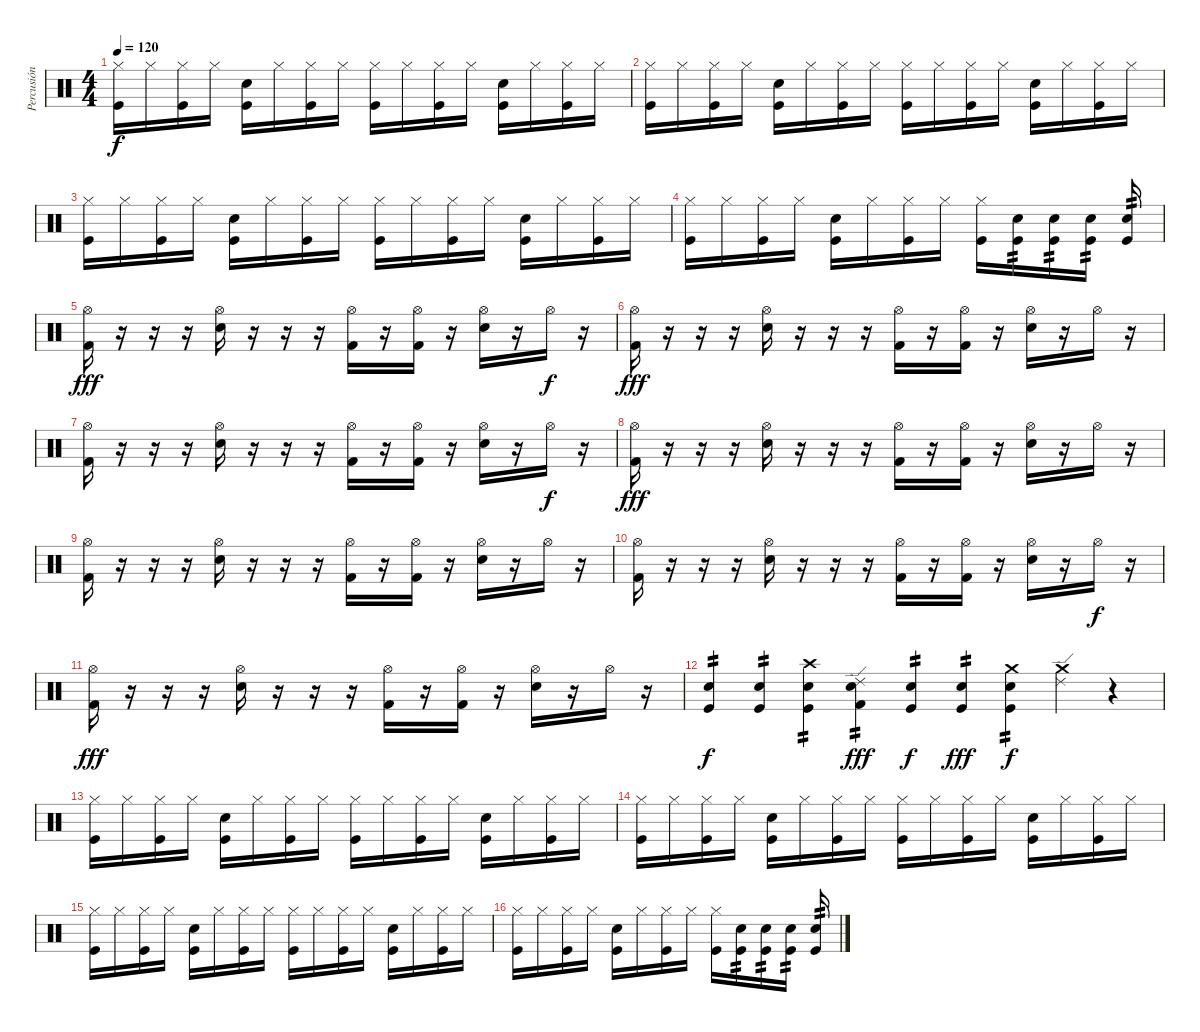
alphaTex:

\track ("Percusión" "Percusión") {instrument percussion}
\staff {score}
\articulation defaults
\ts (4 4)
\tempo 120
\clef neutral
\ks c
("Hi-Hat (closed)" "Kick (hit)").16{dy f} "Hi-Hat (closed)".16 ("Hi-Hat (closed)" "Kick (hit)").16 "Hi-Hat (closed)".16 ("Snare (hit) 2" "Kick (hit)").16 "Hi-Hat (closed)".16 ("Hi-Hat (closed)" "Kick (hit)").16 "Hi-Hat (closed)".16 ("Hi-Hat (closed)" "Kick (hit)").16 "Hi-Hat (closed)".16 ("Hi-Hat (closed)" "Kick (hit)").16 "Hi-Hat (closed)".16 ("Snare (hit) 2" "Kick (hit)").16 "Hi-Hat (closed)".16 ("Hi-Hat (closed)" "Kick (hit)").16 "Hi-Hat (closed)".16 |
("Hi-Hat (closed)" "Kick (hit)").16 "Hi-Hat (closed)".16 ("Hi-Hat (closed)" "Kick (hit)").16 "Hi-Hat (closed)".16 ("Snare (hit) 2" "Kick (hit)").16 "Hi-Hat (closed)".16 ("Hi-Hat (closed)" "Kick (hit)").16 "Hi-Hat (closed)".16 ("Hi-Hat (closed)" "Kick (hit)").16 "Hi-Hat (closed)".16 ("Hi-Hat (closed)" "Kick (hit)").16 "Hi-Hat (closed)".16 ("Snare (hit) 2" "Kick (hit)").16 "Hi-Hat (closed)".16 ("Hi-Hat (closed)" "Kick (hit)").16 "Hi-Hat (closed)".16 |
("Hi-Hat (closed)" "Kick (hit)").16 "Hi-Hat (closed)".16 ("Hi-Hat (closed)" "Kick (hit)").16 "Hi-Hat (closed)".16 ("Snare (hit) 2" "Kick (hit)").16 "Hi-Hat (closed)".16 ("Hi-Hat (closed)" "Kick (hit)").16 "Hi-Hat (closed)".16 ("Hi-Hat (closed)" "Kick (hit)").16 "Hi-Hat (closed)".16 ("Hi-Hat (closed)" "Kick (hit)").16 "Hi-Hat (closed)".16 ("Snare (hit) 2" "Kick (hit)").16 "Hi-Hat (closed)".16 ("Hi-Hat (closed)" "Kick (hit)").16 "Hi-Hat (closed)".16 |
("Hi-Hat (closed)" "Kick (hit)").16 "Hi-Hat (closed)".16 ("Hi-Hat (closed)" "Kick (hit)").16 "Hi-Hat (closed)".16 ("Snare (hit) 2" "Kick (hit)").16 "Hi-Hat (closed)".16 ("Hi-Hat (closed)" "Kick (hit)").16 "Hi-Hat (closed)".16 ("Hi-Hat (closed)" "Kick (hit)").16 ("Snare (hit) 2" "Kick (hit)").16{tp 2} ("Snare (hit) 2" "Kick (hit)").16{tp 2} ("Snare (hit) 2" "Kick (hit)").16{tp 2} ("Snare (hit) 2" "Kick (hit)").16{tp 2} |
("Hi-Hat (open)" "Kick (hit) 2").16{dy fff} r.16 r.16 r.16 ("Hi-Hat (open)" "Snare (hit) 2").16 r.16 r.16 r.16 ("Hi-Hat (open)" "Kick (hit) 2").16 r.16 ("Hi-Hat (open)" "Kick (hit) 2").16 r.16 ("Hi-Hat (open)" "Snare (hit) 2").16 r.16 "Hi-Hat (open)".16{dy f} r.16 |
("Hi-Hat (open)" "Kick (hit) 2").16{dy fff} r.16 r.16 r.16 ("Hi-Hat (open)" "Snare (hit) 2").16 r.16 r.16 r.16 ("Hi-Hat (open)" "Kick (hit) 2").16 r.16 ("Hi-Hat (open)" "Kick (hit) 2").16 r.16 ("Hi-Hat (open)" "Snare (hit) 2").16 r.16 "Hi-Hat (open)".16 r.16 |
("Hi-Hat (open)" "Kick (hit) 2").16 r.16 r.16 r.16 ("Hi-Hat (open)" "Snare (hit) 2").16 r.16 r.16 r.16 ("Hi-Hat (open)" "Kick (hit) 2").16 r.16 ("Hi-Hat (open)" "Kick (hit) 2").16 r.16 ("Hi-Hat (open)" "Snare (hit) 2").16 r.16 "Hi-Hat (open)".16{dy f} r.16 |
("Hi-Hat (open)" "Kick (hit) 2").16{dy fff} r.16 r.16 r.16 ("Hi-Hat (open)" "Snare (hit) 2").16 r.16 r.16 r.16 ("Hi-Hat (open)" "Kick (hit) 2").16 r.16 ("Hi-Hat (open)" "Kick (hit) 2").16 r.16 ("Hi-Hat (open)" "Snare (hit) 2").16 r.16 "Hi-Hat (open)".16 r.16 |
("Hi-Hat (open)" "Kick (hit) 2").16 r.16 r.16 r.16 ("Hi-Hat (open)" "Snare (hit) 2").16 r.16 r.16 r.16 ("Hi-Hat (open)" "Kick (hit) 2").16 r.16 ("Hi-Hat (open)" "Kick (hit) 2").16 r.16 ("Hi-Hat (open)" "Snare (hit) 2").16 r.16 "Hi-Hat (open)".16 r.16 |
("Hi-Hat (open)" "Kick (hit) 2").16 r.16 r.16 r.16 ("Hi-Hat (open)" "Snare (hit) 2").16 r.16 r.16 r.16 ("Hi-Hat (open)" "Kick (hit) 2").16 r.16 ("Hi-Hat (open)" "Kick (hit) 2").16 r.16 ("Hi-Hat (open)" "Snare (hit) 2").16 r.16 "Hi-Hat (open)".16{dy f} r.16 |
("Hi-Hat (open)" "Kick (hit) 2").16{dy fff} r.16 r.16 r.16 ("Hi-Hat (open)" "Snare (hit) 2").16 r.16 r.16 r.16 ("Hi-Hat (open)" "Kick (hit) 2").16 r.16 ("Hi-Hat (open)" "Kick (hit) 2").16 r.16 ("Hi-Hat (open)" "Snare (hit) 2").16 r.16 "Hi-Hat (open)".16 r.16 |
("Snare (hit) 2" "Kick (hit)").4{tp 2 dy f} ("Snare (hit) 2" "Kick (hit)").4{tp 2} ("Snare (hit) 2" "Kick (hit)" "Crash high (hit)").4{tp 2} ("Snare (hit) 2" "Kick (hit) 2" "Ride (edge) 2").4{tp 2 dy fff} ("Snare (hit) 2" "Kick (hit)").4{tp 2 dy f} ("Snare (hit) 2" "Kick (hit)").4{tp 2 dy fff} ("Snare (hit) 2" "Kick (hit)" "Crash medium (hit)").4{tp 2 dy f} ("Ride (edge) 2" "Crash medium (hit)").4 r.4 |
("Hi-Hat (closed)" "Kick (hit)").16 "Hi-Hat (closed)".16 ("Hi-Hat (closed)" "Kick (hit)").16 "Hi-Hat (closed)".16 ("Snare (hit) 2" "Kick (hit)").16 "Hi-Hat (closed)".16 ("Hi-Hat (closed)" "Kick (hit)").16 "Hi-Hat (closed)".16 ("Hi-Hat (closed)" "Kick (hit)").16 "Hi-Hat (closed)".16 ("Hi-Hat (closed)" "Kick (hit)").16 "Hi-Hat (closed)".16 ("Snare (hit) 2" "Kick (hit)").16 "Hi-Hat (closed)".16 ("Hi-Hat (closed)" "Kick (hit)").16 "Hi-Hat (closed)".16 |
("Hi-Hat (closed)" "Kick (hit)").16 "Hi-Hat (closed)".16 ("Hi-Hat (closed)" "Kick (hit)").16 "Hi-Hat (closed)".16 ("Snare (hit) 2" "Kick (hit)").16 "Hi-Hat (closed)".16 ("Hi-Hat (closed)" "Kick (hit)").16 "Hi-Hat (closed)".16 ("Hi-Hat (closed)" "Kick (hit)").16 "Hi-Hat (closed)".16 ("Hi-Hat (closed)" "Kick (hit)").16 "Hi-Hat (closed)".16 ("Snare (hit) 2" "Kick (hit)").16 "Hi-Hat (closed)".16 ("Hi-Hat (closed)" "Kick (hit)").16 "Hi-Hat (closed)".16 |
("Hi-Hat (closed)" "Kick (hit)").16 "Hi-Hat (closed)".16 ("Hi-Hat (closed)" "Kick (hit)").16 "Hi-Hat (closed)".16 ("Snare (hit) 2" "Kick (hit)").16 "Hi-Hat (closed)".16 ("Hi-Hat (closed)" "Kick (hit)").16 "Hi-Hat (closed)".16 ("Hi-Hat (closed)" "Kick (hit)").16 "Hi-Hat (closed)".16 ("Hi-Hat (closed)" "Kick (hit)").16 "Hi-Hat (closed)".16 ("Snare (hit) 2" "Kick (hit)").16 "Hi-Hat (closed)".16 ("Hi-Hat (closed)" "Kick (hit)").16 "Hi-Hat (closed)".16 |
("Hi-Hat (closed)" "Kick (hit)").16 "Hi-Hat (closed)".16 ("Hi-Hat (closed)" "Kick (hit)").16 "Hi-Hat (closed)".16 ("Snare (hit) 2" "Kick (hit)").16 "Hi-Hat (closed)".16 ("Hi-Hat (closed)" "Kick (hit)").16 "Hi-Hat (closed)".16 ("Hi-Hat (closed)" "Kick (hit)").16 ("Snare (hit) 2" "Kick (hit)").16{tp 2} ("Snare (hit) 2" "Kick (hit)").16{tp 2} ("Snare (hit) 2" "Kick (hit)").16{tp 2} ("Snare (hit) 2" "Kick (hit)").16{tp 2}
